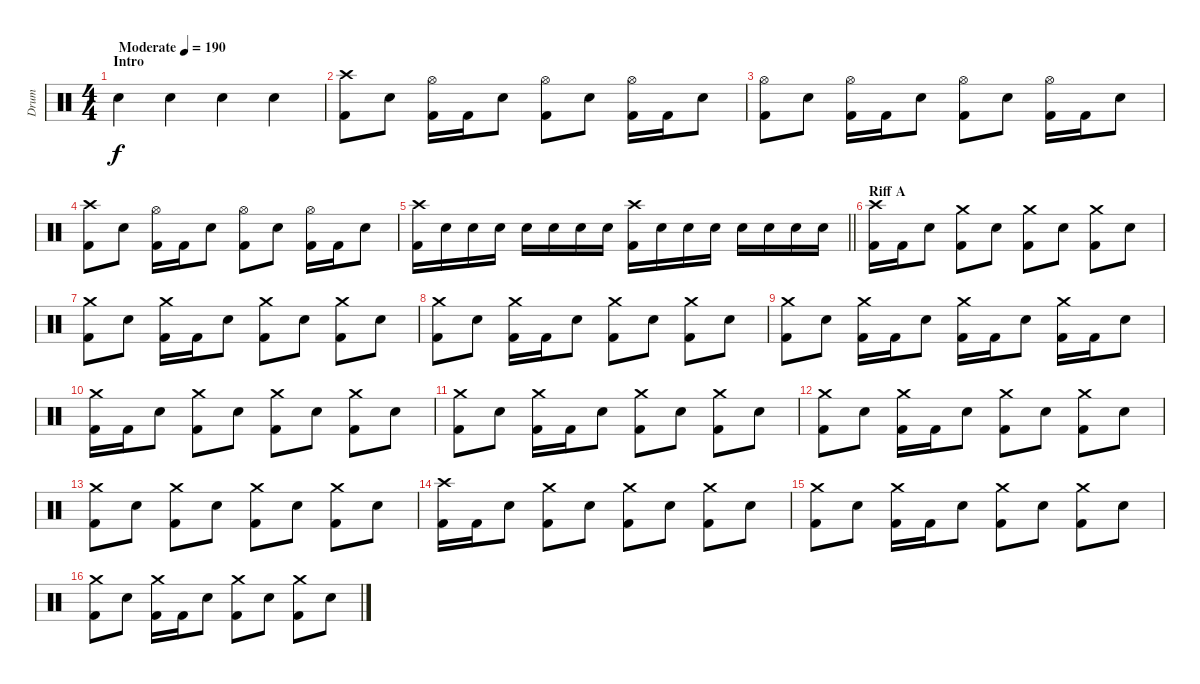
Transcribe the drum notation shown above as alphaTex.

\track ("Drum" "Drum") {instrument percussion}
\staff {score}
\articulation defaults
\ts (4 4)
\section ("" "Intro")
\tempo (190 "Moderate")
\clef neutral
\ks c "Electric Snare (hit)".4{dy f} "Electric Snare (hit)".4 "Electric Snare (hit)".4 "Electric Snare (hit)".4
|
("Crash high (hit)" "Kick (hit) 2").8 "Electric Snare (hit)".8 ("Hi-Hat (open)" "Kick (hit) 2").16 "Kick (hit) 2".16 "Electric Snare (hit)".8 ("Hi-Hat (open)" "Kick (hit) 2").8 "Electric Snare (hit)".8 ("Hi-Hat (open)" "Kick (hit) 2").16 "Kick (hit) 2".16 "Electric Snare (hit)".8 |
("Hi-Hat (open)" "Kick (hit) 2").8 "Electric Snare (hit)".8 ("Hi-Hat (open)" "Kick (hit) 2").16 "Kick (hit) 2".16 "Electric Snare (hit)".8 ("Hi-Hat (open)" "Kick (hit) 2").8 "Electric Snare (hit)".8 ("Hi-Hat (open)" "Kick (hit) 2").16 "Kick (hit) 2".16 "Electric Snare (hit)".8 |
("Crash high (hit)" "Kick (hit) 2").8 "Electric Snare (hit)".8 ("Hi-Hat (open)" "Kick (hit) 2").16 "Kick (hit) 2".16 "Electric Snare (hit)".8 ("Hi-Hat (open)" "Kick (hit) 2").8 "Electric Snare (hit)".8 ("Hi-Hat (open)" "Kick (hit) 2").16 "Kick (hit) 2".16 "Electric Snare (hit)".8 |
\barLineRight lightlight
("Crash high (hit)" "Kick (hit) 2").16 "Electric Snare (hit)".16 "Electric Snare (hit)".16 "Electric Snare (hit)".16 "Electric Snare (hit)".16 "Electric Snare (hit)".16 "Electric Snare (hit)".16 "Electric Snare (hit)".16 ("Crash high (hit)" "Kick (hit) 2").16 "Electric Snare (hit)".16 "Electric Snare (hit)".16 "Electric Snare (hit)".16 "Electric Snare (hit)".16 "Electric Snare (hit)".16 "Electric Snare (hit)".16 "Electric Snare (hit)".16 |
\section ("" "Riff A")
("Crash high (hit)" "Kick (hit) 2").16 "Kick (hit) 2".16 "Electric Snare (hit)".8 ("Crash medium (hit)" "Kick (hit) 2").8 "Electric Snare (hit)".8 ("Crash medium (hit)" "Kick (hit) 2").8 "Electric Snare (hit)".8 ("Crash medium (hit)" "Kick (hit) 2").8 "Electric Snare (hit)".8 |
("Crash medium (hit)" "Kick (hit) 2").8 "Electric Snare (hit)".8 ("Crash medium (hit)" "Kick (hit) 2").16 "Kick (hit) 2".16 "Electric Snare (hit)".8 ("Crash medium (hit)" "Kick (hit) 2").8 "Electric Snare (hit)".8 ("Crash medium (hit)" "Kick (hit) 2").8 "Electric Snare (hit)".8 |
("Crash medium (hit)" "Kick (hit) 2").8 "Electric Snare (hit)".8 ("Crash medium (hit)" "Kick (hit) 2").16 "Kick (hit) 2".16 "Electric Snare (hit)".8 ("Crash medium (hit)" "Kick (hit) 2").8 "Electric Snare (hit)".8 ("Crash medium (hit)" "Kick (hit) 2").8 "Electric Snare (hit)".8 |
("Crash medium (hit)" "Kick (hit) 2").8 "Electric Snare (hit)".8 ("Crash medium (hit)" "Kick (hit) 2").16 "Kick (hit) 2".16 "Electric Snare (hit)".8 ("Crash medium (hit)" "Kick (hit) 2").16 "Kick (hit) 2".16 "Electric Snare (hit)".8 ("Crash medium (hit)" "Kick (hit) 2").16 "Kick (hit) 2".16 "Electric Snare (hit)".8 |
("Crash medium (hit)" "Kick (hit) 2").16 "Kick (hit) 2".16 "Electric Snare (hit)".8 ("Crash medium (hit)" "Kick (hit) 2").8 "Electric Snare (hit)".8 ("Crash medium (hit)" "Kick (hit) 2").8 "Electric Snare (hit)".8 ("Crash medium (hit)" "Kick (hit) 2").8 "Electric Snare (hit)".8 |
("Crash medium (hit)" "Kick (hit) 2").8 "Electric Snare (hit)".8 ("Crash medium (hit)" "Kick (hit) 2").16 "Kick (hit) 2".16 "Electric Snare (hit)".8 ("Crash medium (hit)" "Kick (hit) 2").8 "Electric Snare (hit)".8 ("Crash medium (hit)" "Kick (hit) 2").8 "Electric Snare (hit)".8 |
("Crash medium (hit)" "Kick (hit) 2").8 "Electric Snare (hit)".8 ("Crash medium (hit)" "Kick (hit) 2").16 "Kick (hit) 2".16 "Electric Snare (hit)".8 ("Crash medium (hit)" "Kick (hit) 2").8 "Electric Snare (hit)".8 ("Crash medium (hit)" "Kick (hit) 2").8 "Electric Snare (hit)".8 |
("Crash medium (hit)" "Kick (hit) 2").8 "Electric Snare (hit)".8 ("Crash medium (hit)" "Kick (hit) 2").8 "Electric Snare (hit)".8 ("Crash medium (hit)" "Kick (hit) 2").8 "Electric Snare (hit)".8 ("Crash medium (hit)" "Kick (hit) 2").8 "Electric Snare (hit)".8 |
("Crash high (hit)" "Kick (hit) 2").16 "Kick (hit) 2".16 "Electric Snare (hit)".8 ("Crash medium (hit)" "Kick (hit) 2").8 "Electric Snare (hit)".8 ("Crash medium (hit)" "Kick (hit) 2").8 "Electric Snare (hit)".8 ("Crash medium (hit)" "Kick (hit) 2").8 "Electric Snare (hit)".8 |
("Crash medium (hit)" "Kick (hit) 2").8 "Electric Snare (hit)".8 ("Crash medium (hit)" "Kick (hit) 2").16 "Kick (hit) 2".16 "Electric Snare (hit)".8 ("Crash medium (hit)" "Kick (hit) 2").8 "Electric Snare (hit)".8 ("Crash medium (hit)" "Kick (hit) 2").8 "Electric Snare (hit)".8 |
("Crash medium (hit)" "Kick (hit) 2").8 "Electric Snare (hit)".8 ("Crash medium (hit)" "Kick (hit) 2").16 "Kick (hit) 2".16 "Electric Snare (hit)".8 ("Crash medium (hit)" "Kick (hit) 2").8 "Electric Snare (hit)".8 ("Crash medium (hit)" "Kick (hit) 2").8 "Electric Snare (hit)".8
